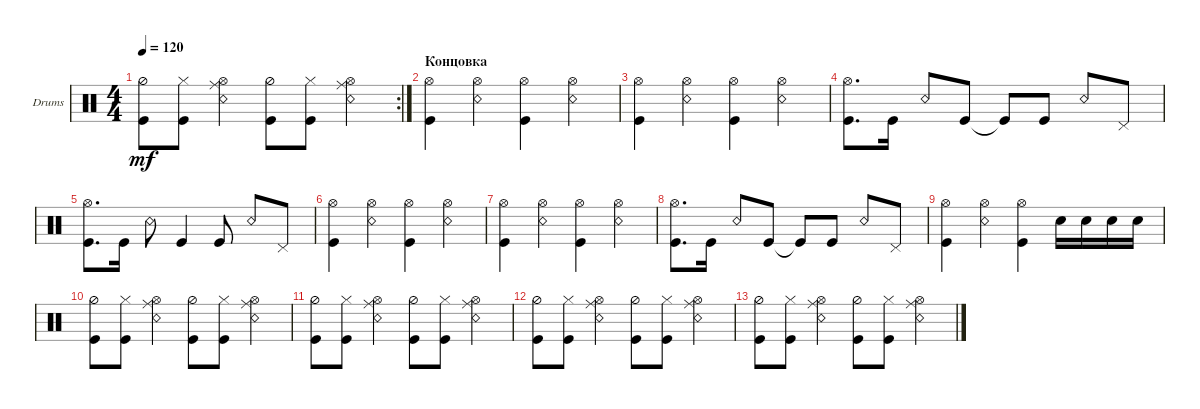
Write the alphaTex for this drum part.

\defaultSystemsLayout 4
\bracketExtendMode groupsimilarinstruments
\firstSystemTrackNameOrientation horizontal
\otherSystemsTrackNameOrientation horizontal
\track ("Drumkit" "Drums") {instrument percussion}
\staff {score}
\articulation defaults
\rc 2
\ts (4 4)
\tempo 120
\clef neutral
\ks c
("Kick (hit)" "Hi-Hat (half)").8{dy mf} ("Hi-Hat (closed)" "Kick (hit)").8 ("Hi-Hat (open)" "Ride (middle)" "Snare (rim shot)").4 ("Kick (hit)" "Hi-Hat (half)").8 ("Hi-Hat (closed)" "Kick (hit)").8 ("Hi-Hat (open)" "Ride (middle)" "Snare (rim shot)").4 |
\section ("" "Концовка")
("Kick (hit)" "Hi-Hat (open)").4 ("Snare (rim shot)" "Hi-Hat (open)").4 ("Kick (hit)" "Hi-Hat (open)").4 ("Snare (rim shot)" "Hi-Hat (open)").4 |
("Kick (hit)" "Hi-Hat (open)").4 ("Snare (rim shot)" "Hi-Hat (open)").4 ("Kick (hit)" "Hi-Hat (open)").4 ("Snare (rim shot)" "Hi-Hat (open)").4 |
("Kick (hit)" "Hi-Hat (open)").8{d} "Kick (hit)".16 "Snare (rim shot)".8 "Kick (hit)".8 "Kick (hit)"{t}.8 "Kick (hit)".8 "Snare (rim shot)".8 "Pedal Hi-Hat (hit)".8 |
("Kick (hit)" "Hi-Hat (open)").8{d} "Kick (hit)".16 "Snare (rim shot)".8 "Kick (hit)".4 "Kick (hit)".8 "Snare (rim shot)".8 "Pedal Hi-Hat (hit)".8 |
("Kick (hit)" "Hi-Hat (open)").4 ("Snare (rim shot)" "Hi-Hat (open)").4 ("Kick (hit)" "Hi-Hat (open)").4 ("Snare (rim shot)" "Hi-Hat (open)").4 |
("Kick (hit)" "Hi-Hat (open)").4 ("Snare (rim shot)" "Hi-Hat (open)").4 ("Kick (hit)" "Hi-Hat (open)").4 ("Snare (rim shot)" "Hi-Hat (open)").4 |
("Kick (hit)" "Hi-Hat (open)").8{d} "Kick (hit)".16 "Snare (rim shot)".8 "Kick (hit)".8 "Kick (hit)"{t}.8 "Kick (hit)".8 "Snare (rim shot)".8 "Pedal Hi-Hat (hit)".8 |
("Kick (hit)" "Hi-Hat (open)").4 ("Snare (rim shot)" "Hi-Hat (open)").4 ("Kick (hit)" "Hi-Hat (open)").4 "Snare (hit) 2".16 "Snare (hit) 2".16 "Snare (hit) 2".16 "Snare (hit) 2".16 |
("Kick (hit)" "Hi-Hat (half)").8 ("Hi-Hat (closed)" "Kick (hit)").8 ("Hi-Hat (open)" "Ride (middle)" "Snare (rim shot)").4 ("Kick (hit)" "Hi-Hat (half)").8 ("Hi-Hat (closed)" "Kick (hit)").8 ("Hi-Hat (open)" "Ride (middle)" "Snare (rim shot)").4 |
("Kick (hit)" "Hi-Hat (half)").8 ("Hi-Hat (closed)" "Kick (hit)").8 ("Hi-Hat (open)" "Ride (middle)" "Snare (rim shot)").4 ("Kick (hit)" "Hi-Hat (half)").8 ("Hi-Hat (closed)" "Kick (hit)").8 ("Hi-Hat (open)" "Ride (middle)" "Snare (rim shot)").4 |
("Kick (hit)" "Hi-Hat (half)").8 ("Hi-Hat (closed)" "Kick (hit)").8 ("Hi-Hat (open)" "Ride (middle)" "Snare (rim shot)").4 ("Kick (hit)" "Hi-Hat (half)").8 ("Hi-Hat (closed)" "Kick (hit)").8 ("Hi-Hat (open)" "Ride (middle)" "Snare (rim shot)").4 |
("Kick (hit)" "Hi-Hat (half)").8 ("Hi-Hat (closed)" "Kick (hit)").8 ("Hi-Hat (open)" "Ride (middle)" "Snare (rim shot)").4 ("Kick (hit)" "Hi-Hat (half)").8 ("Hi-Hat (closed)" "Kick (hit)").8 ("Hi-Hat (open)" "Ride (middle)" "Snare (rim shot)").4
